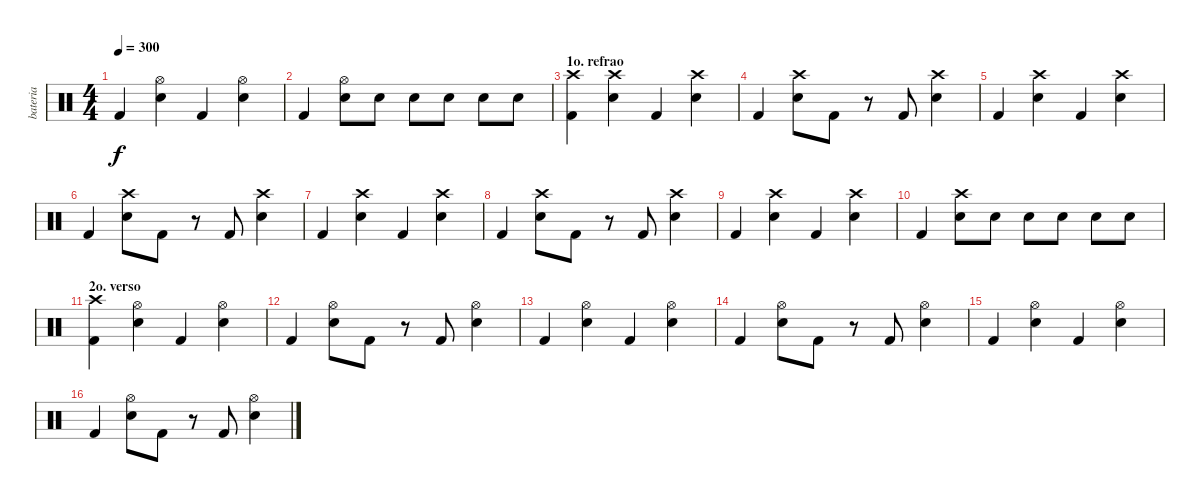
\track ("bateria" "bateria") {instrument percussion}
\staff {score}
\articulation defaults
\ts (4 4)
\tempo 300
\clef neutral
\ks c "Kick (hit) 2".4{dy f}
("Electric Snare (hit)" "Hi-Hat (open)").4 "Kick (hit) 2".4 ("Electric Snare (hit)" "Hi-Hat (open)").4 |
"Kick (hit) 2".4 ("Electric Snare (hit)" "Hi-Hat (open)").8 "Electric Snare (hit)".8 "Electric Snare (hit)".8 "Electric Snare (hit)".8 "Electric Snare (hit)".8 "Electric Snare (hit)".8 |
\section ("" "1o. refrao")
("Crash high (hit)" "Kick (hit) 2").4 ("Crash high (hit)" "Electric Snare (hit)").4 "Kick (hit) 2".4 ("Crash high (hit)" "Electric Snare (hit)").4 |
"Kick (hit) 2".4 ("Crash high (hit)" "Electric Snare (hit)").8 "Kick (hit) 2".8 r.8 "Kick (hit) 2".8 ("Crash high (hit)" "Electric Snare (hit)").4 |
"Kick (hit) 2".4 ("Crash high (hit)" "Electric Snare (hit)").4 "Kick (hit) 2".4 ("Crash high (hit)" "Electric Snare (hit)").4 |
"Kick (hit) 2".4 ("Crash high (hit)" "Electric Snare (hit)").8 "Kick (hit) 2".8 r.8 "Kick (hit) 2".8 ("Crash high (hit)" "Electric Snare (hit)").4 |
"Kick (hit) 2".4 ("Crash high (hit)" "Electric Snare (hit)").4 "Kick (hit) 2".4 ("Crash high (hit)" "Electric Snare (hit)").4 |
"Kick (hit) 2".4 ("Crash high (hit)" "Electric Snare (hit)").8 "Kick (hit) 2".8 r.8 "Kick (hit) 2".8 ("Crash high (hit)" "Electric Snare (hit)").4 |
"Kick (hit) 2".4 ("Crash high (hit)" "Electric Snare (hit)").4 "Kick (hit) 2".4 ("Crash high (hit)" "Electric Snare (hit)").4 |
"Kick (hit) 2".4 ("Crash high (hit)" "Electric Snare (hit)").8 "Electric Snare (hit)".8 "Electric Snare (hit)".8 "Electric Snare (hit)".8 "Electric Snare (hit)".8 "Electric Snare (hit)".8 |
\section ("" "2o. verso")
("Crash high (hit)" "Kick (hit) 2").4 ("Electric Snare (hit)" "Hi-Hat (open)").4 "Kick (hit) 2".4 ("Electric Snare (hit)" "Hi-Hat (open)").4 |
"Kick (hit) 2".4 ("Electric Snare (hit)" "Hi-Hat (open)").8 "Kick (hit) 2".8 r.8 "Kick (hit) 2".8 ("Electric Snare (hit)" "Hi-Hat (open)").4 |
"Kick (hit) 2".4 ("Electric Snare (hit)" "Hi-Hat (open)").4 "Kick (hit) 2".4 ("Electric Snare (hit)" "Hi-Hat (open)").4 |
"Kick (hit) 2".4 ("Electric Snare (hit)" "Hi-Hat (open)").8 "Kick (hit) 2".8 r.8 "Kick (hit) 2".8 ("Electric Snare (hit)" "Hi-Hat (open)").4 |
"Kick (hit) 2".4 ("Electric Snare (hit)" "Hi-Hat (open)").4 "Kick (hit) 2".4 ("Electric Snare (hit)" "Hi-Hat (open)").4 |
"Kick (hit) 2".4 ("Electric Snare (hit)" "Hi-Hat (open)").8 "Kick (hit) 2".8 r.8 "Kick (hit) 2".8 ("Electric Snare (hit)" "Hi-Hat (open)").4
